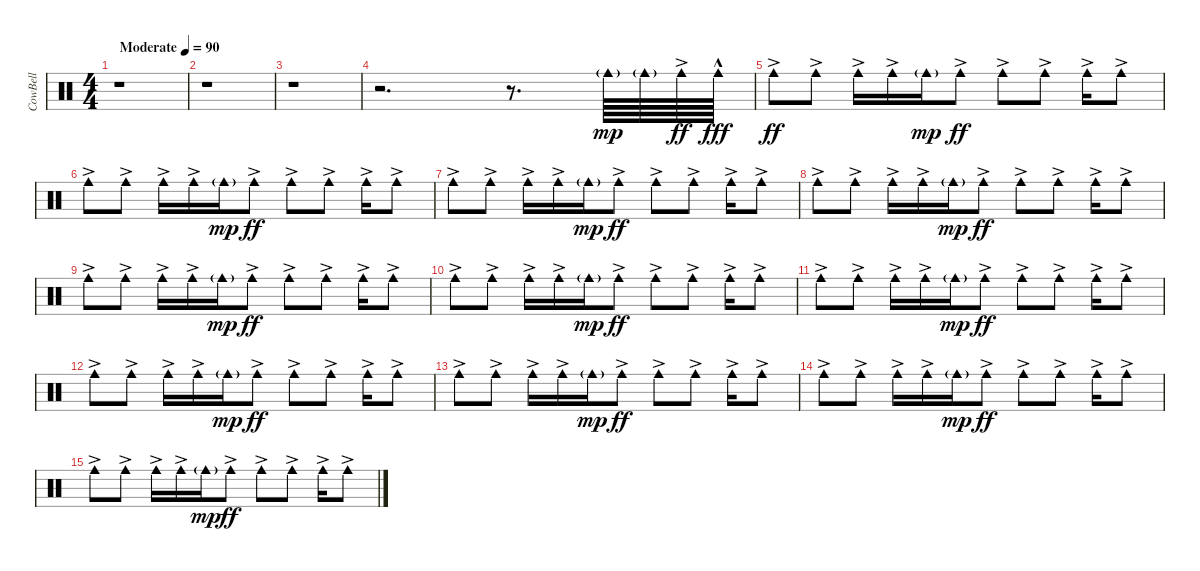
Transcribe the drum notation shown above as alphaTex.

\track ("CowBell" "CowBell") {instrument percussion}
\staff {score}
\articulation defaults
\ts (4 4)
\tempo (90 "Moderate")
\clef neutral
\ks c
r.1{dy mp} |
r.1 |
r.1 |
r.2{d} r.8{d} "Cowbell medium (hit)"{g}.64 "Cowbell medium (hit)"{g}.64 "Cowbell medium (hit)"{ac}.64{dy ff} "Cowbell medium (hit)"{hac}.64{dy fff} |
"Cowbell medium (hit)"{ac}.8{dy ff} "Cowbell medium (hit)"{ac}.8 "Cowbell medium (hit)"{ac}.16 "Cowbell medium (hit)"{ac}.16 "Cowbell medium (hit)"{g}.16{dy mp} "Cowbell medium (hit)"{ac}.8{dy ff} "Cowbell medium (hit)"{ac}.8 "Cowbell medium (hit)"{ac}.8 "Cowbell medium (hit)"{ac}.16 "Cowbell medium (hit)"{ac}.8 |
"Cowbell medium (hit)"{ac}.8 "Cowbell medium (hit)"{ac}.8 "Cowbell medium (hit)"{ac}.16 "Cowbell medium (hit)"{ac}.16 "Cowbell medium (hit)"{g}.16{dy mp} "Cowbell medium (hit)"{ac}.8{dy ff} "Cowbell medium (hit)"{ac}.8 "Cowbell medium (hit)"{ac}.8 "Cowbell medium (hit)"{ac}.16 "Cowbell medium (hit)"{ac}.8 |
"Cowbell medium (hit)"{ac}.8 "Cowbell medium (hit)"{ac}.8 "Cowbell medium (hit)"{ac}.16 "Cowbell medium (hit)"{ac}.16 "Cowbell medium (hit)"{g}.16{dy mp} "Cowbell medium (hit)"{ac}.8{dy ff} "Cowbell medium (hit)"{ac}.8 "Cowbell medium (hit)"{ac}.8 "Cowbell medium (hit)"{ac}.16 "Cowbell medium (hit)"{ac}.8 |
"Cowbell medium (hit)"{ac}.8 "Cowbell medium (hit)"{ac}.8 "Cowbell medium (hit)"{ac}.16 "Cowbell medium (hit)"{ac}.16 "Cowbell medium (hit)"{g}.16{dy mp} "Cowbell medium (hit)"{ac}.8{dy ff} "Cowbell medium (hit)"{ac}.8 "Cowbell medium (hit)"{ac}.8 "Cowbell medium (hit)"{ac}.16 "Cowbell medium (hit)"{ac}.8 |
"Cowbell medium (hit)"{ac}.8 "Cowbell medium (hit)"{ac}.8 "Cowbell medium (hit)"{ac}.16 "Cowbell medium (hit)"{ac}.16 "Cowbell medium (hit)"{g}.16{dy mp} "Cowbell medium (hit)"{ac}.8{dy ff} "Cowbell medium (hit)"{ac}.8 "Cowbell medium (hit)"{ac}.8 "Cowbell medium (hit)"{ac}.16 "Cowbell medium (hit)"{ac}.8 |
"Cowbell medium (hit)"{ac}.8 "Cowbell medium (hit)"{ac}.8 "Cowbell medium (hit)"{ac}.16 "Cowbell medium (hit)"{ac}.16 "Cowbell medium (hit)"{g}.16{dy mp} "Cowbell medium (hit)"{ac}.8{dy ff} "Cowbell medium (hit)"{ac}.8 "Cowbell medium (hit)"{ac}.8 "Cowbell medium (hit)"{ac}.16 "Cowbell medium (hit)"{ac}.8 |
"Cowbell medium (hit)"{ac}.8 "Cowbell medium (hit)"{ac}.8 "Cowbell medium (hit)"{ac}.16 "Cowbell medium (hit)"{ac}.16 "Cowbell medium (hit)"{g}.16{dy mp} "Cowbell medium (hit)"{ac}.8{dy ff} "Cowbell medium (hit)"{ac}.8 "Cowbell medium (hit)"{ac}.8 "Cowbell medium (hit)"{ac}.16 "Cowbell medium (hit)"{ac}.8 |
"Cowbell medium (hit)"{ac}.8 "Cowbell medium (hit)"{ac}.8 "Cowbell medium (hit)"{ac}.16 "Cowbell medium (hit)"{ac}.16 "Cowbell medium (hit)"{g}.16{dy mp} "Cowbell medium (hit)"{ac}.8{dy ff} "Cowbell medium (hit)"{ac}.8 "Cowbell medium (hit)"{ac}.8 "Cowbell medium (hit)"{ac}.16 "Cowbell medium (hit)"{ac}.8 |
"Cowbell medium (hit)"{ac}.8 "Cowbell medium (hit)"{ac}.8 "Cowbell medium (hit)"{ac}.16 "Cowbell medium (hit)"{ac}.16 "Cowbell medium (hit)"{g}.16{dy mp} "Cowbell medium (hit)"{ac}.8{dy ff} "Cowbell medium (hit)"{ac}.8 "Cowbell medium (hit)"{ac}.8 "Cowbell medium (hit)"{ac}.16 "Cowbell medium (hit)"{ac}.8 |
"Cowbell medium (hit)"{ac}.8 "Cowbell medium (hit)"{ac}.8 "Cowbell medium (hit)"{ac}.16 "Cowbell medium (hit)"{ac}.16 "Cowbell medium (hit)"{g}.16{dy mp} "Cowbell medium (hit)"{ac}.8{dy ff} "Cowbell medium (hit)"{ac}.8 "Cowbell medium (hit)"{ac}.8 "Cowbell medium (hit)"{ac}.16 "Cowbell medium (hit)"{ac}.8 |
"Cowbell medium (hit)"{ac}.8 "Cowbell medium (hit)"{ac}.8 "Cowbell medium (hit)"{ac}.16 "Cowbell medium (hit)"{ac}.16 "Cowbell medium (hit)"{g}.16{dy mp} "Cowbell medium (hit)"{ac}.8{dy ff} "Cowbell medium (hit)"{ac}.8 "Cowbell medium (hit)"{ac}.8 "Cowbell medium (hit)"{ac}.16 "Cowbell medium (hit)"{ac}.8
